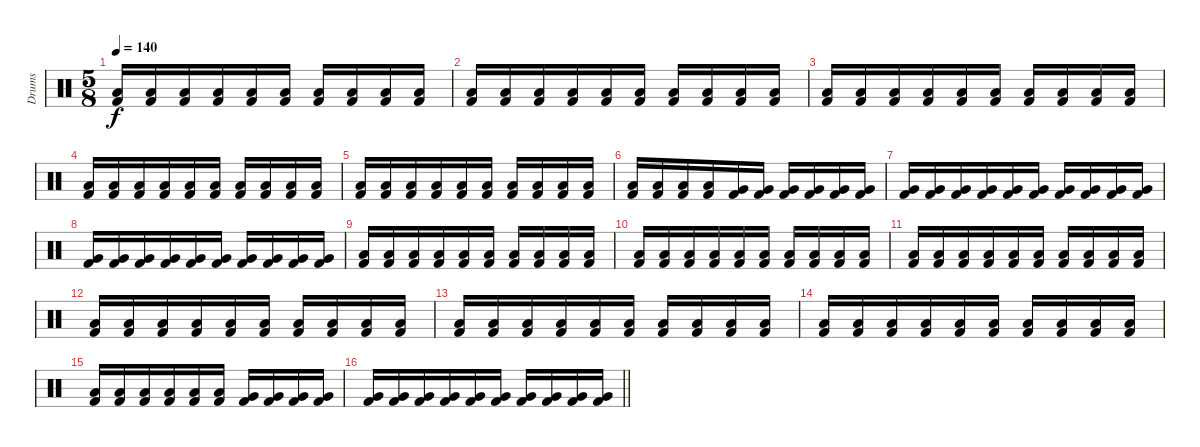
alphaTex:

\track ("Drums" "Drums") {instrument percussion}
\staff {score}
\articulation defaults
\ts (5 8)
\tempo 140
\clef neutral
\ks c
("Low Floor Tom (hit)" "Kick (hit) 2").16{dy f volume 4} ("Low Floor Tom (hit)" "Kick (hit) 2").16 ("Low Floor Tom (hit)" "Kick (hit) 2").16 ("Low Floor Tom (hit)" "Kick (hit) 2").16 ("Low Floor Tom (hit)" "Kick (hit) 2").16 ("Low Floor Tom (hit)" "Kick (hit) 2").16 ("Low Floor Tom (hit)" "Kick (hit) 2").16 ("Low Floor Tom (hit)" "Kick (hit) 2").16 ("Low Floor Tom (hit)" "Kick (hit) 2").16 ("Low Floor Tom (hit)" "Kick (hit) 2").16 |
("Low Floor Tom (hit)" "Kick (hit) 2").16 ("Low Floor Tom (hit)" "Kick (hit) 2").16 ("Low Floor Tom (hit)" "Kick (hit) 2").16 ("Low Floor Tom (hit)" "Kick (hit) 2").16 ("Low Floor Tom (hit)" "Kick (hit) 2").16 ("Low Floor Tom (hit)" "Kick (hit) 2").16 ("Low Floor Tom (hit)" "Kick (hit) 2").16 ("Low Floor Tom (hit)" "Kick (hit) 2").16 ("Low Floor Tom (hit)" "Kick (hit) 2").16 ("Low Floor Tom (hit)" "Kick (hit) 2").16 |
("Low Floor Tom (hit)" "Kick (hit) 2").16 ("Low Floor Tom (hit)" "Kick (hit) 2").16{volume 11} ("Low Floor Tom (hit)" "Kick (hit) 2").16 ("Low Floor Tom (hit)" "Kick (hit) 2").16 ("Low Floor Tom (hit)" "Kick (hit) 2").16 ("Low Floor Tom (hit)" "Kick (hit) 2").16 ("Low Floor Tom (hit)" "Kick (hit) 2").16 ("Low Floor Tom (hit)" "Kick (hit) 2").16 ("Low Floor Tom (hit)" "Kick (hit) 2").16 ("Low Floor Tom (hit)" "Kick (hit) 2").16 |
("Low Floor Tom (hit)" "Kick (hit) 2").16{balance 8} ("Low Floor Tom (hit)" "Kick (hit) 2").16 ("Low Tom (hit)" "Kick (hit) 2").16 ("Low Tom (hit)" "Kick (hit) 2").16 ("Low Tom (hit)" "Kick (hit) 2").16 ("Low Tom (hit)" "Kick (hit) 2").16 ("Low Tom (hit)" "Kick (hit) 2").16 ("Low Tom (hit)" "Kick (hit) 2").16 ("Low Tom (hit)" "Kick (hit) 2").16 ("Low Tom (hit)" "Kick (hit) 2").16 |
("Low Tom (hit)" "Kick (hit) 2").16 ("Low Tom (hit)" "Kick (hit) 2").16 ("Low Tom (hit)" "Kick (hit) 2").16 ("Low Tom (hit)" "Kick (hit) 2").16 ("Low Tom (hit)" "Kick (hit) 2").16 ("Low Tom (hit)" "Kick (hit) 2").16 ("Low Tom (hit)" "Kick (hit) 2").16 ("Low Tom (hit)" "Kick (hit) 2").16 ("Low Tom (hit)" "Kick (hit) 2").16 ("Low Tom (hit)" "Kick (hit) 2").16 |
("Low Tom (hit)" "Kick (hit) 2").16{volume 5 balance 0} ("Low Tom (hit)" "Kick (hit) 2").16 ("Low Tom (hit)" "Kick (hit) 2").16 ("Low Tom (hit)" "Kick (hit) 2").16 ("Very Low Tom (hit)" "Kick (hit) 2").16 ("Very Low Tom (hit)" "Kick (hit) 2").16 ("Very Low Tom (hit)" "Kick (hit) 2").16 ("Very Low Tom (hit)" "Kick (hit) 2").16 ("Very Low Tom (hit)" "Kick (hit) 2").16 ("Very Low Tom (hit)" "Kick (hit) 2").16 |
("Very Low Tom (hit)" "Kick (hit) 2").16{volume 12} ("Very Low Tom (hit)" "Kick (hit) 2").16 ("Very Low Tom (hit)" "Kick (hit) 2").16 ("Very Low Tom (hit)" "Kick (hit) 2").16 ("Very Low Tom (hit)" "Kick (hit) 2").16 ("Very Low Tom (hit)" "Kick (hit) 2").16 ("Very Low Tom (hit)" "Kick (hit) 2").16 ("Very Low Tom (hit)" "Kick (hit) 2").16 ("Very Low Tom (hit)" "Kick (hit) 2").16 ("Very Low Tom (hit)" "Kick (hit) 2").16 |
("Very Low Tom (hit)" "Kick (hit) 2").16 ("Very Low Tom (hit)" "Kick (hit) 2").16 ("Very Low Tom (hit)" "Kick (hit) 2").16 ("Very Low Tom (hit)" "Kick (hit) 2").16 ("Very Low Tom (hit)" "Kick (hit) 2").16 ("Very Low Tom (hit)" "Kick (hit) 2").16 ("Very Low Tom (hit)" "Kick (hit) 2").16 ("Very Low Tom (hit)" "Kick (hit) 2").16 ("Very Low Tom (hit)" "Kick (hit) 2").16 ("Very Low Tom (hit)" "Kick (hit) 2").16 |
("Low Floor Tom (hit)" "Kick (hit) 2").16{volume 4 balance 16} ("Low Floor Tom (hit)" "Kick (hit) 2").16{volume 6} ("Low Floor Tom (hit)" "Kick (hit) 2").16 ("Low Floor Tom (hit)" "Kick (hit) 2").16 ("Low Floor Tom (hit)" "Kick (hit) 2").16 ("Low Floor Tom (hit)" "Kick (hit) 2").16 ("Low Floor Tom (hit)" "Kick (hit) 2").16 ("Low Floor Tom (hit)" "Kick (hit) 2").16 ("Low Floor Tom (hit)" "Kick (hit) 2").16 ("Low Floor Tom (hit)" "Kick (hit) 2").16 |
("Low Floor Tom (hit)" "Kick (hit) 2").16{volume 8} ("Low Floor Tom (hit)" "Kick (hit) 2").16 ("Low Floor Tom (hit)" "Kick (hit) 2").16 ("Low Floor Tom (hit)" "Kick (hit) 2").16 ("Low Floor Tom (hit)" "Kick (hit) 2").16 ("Low Floor Tom (hit)" "Kick (hit) 2").16 ("Low Floor Tom (hit)" "Kick (hit) 2").16 ("Low Floor Tom (hit)" "Kick (hit) 2").16 ("Low Floor Tom (hit)" "Kick (hit) 2").16 ("Low Floor Tom (hit)" "Kick (hit) 2").16 |
("Low Floor Tom (hit)" "Kick (hit) 2").16{volume 9} ("Low Floor Tom (hit)" "Kick (hit) 2").16 ("Low Floor Tom (hit)" "Kick (hit) 2").16 ("Low Floor Tom (hit)" "Kick (hit) 2").16 ("Low Floor Tom (hit)" "Kick (hit) 2").16 ("Low Floor Tom (hit)" "Kick (hit) 2").16 ("Low Floor Tom (hit)" "Kick (hit) 2").16 ("Low Floor Tom (hit)" "Kick (hit) 2").16 ("Low Floor Tom (hit)" "Kick (hit) 2").16 ("Low Floor Tom (hit)" "Kick (hit) 2").16 |
("Low Floor Tom (hit)" "Kick (hit) 2").16 ("Low Floor Tom (hit)" "Kick (hit) 2").16 ("Low Floor Tom (hit)" "Kick (hit) 2").16 ("Low Floor Tom (hit)" "Kick (hit) 2").16 ("Low Floor Tom (hit)" "Kick (hit) 2").16 ("Low Floor Tom (hit)" "Kick (hit) 2").16 ("Low Floor Tom (hit)" "Kick (hit) 2").16 ("Low Floor Tom (hit)" "Kick (hit) 2").16 ("Low Floor Tom (hit)" "Kick (hit) 2").16 ("Low Floor Tom (hit)" "Kick (hit) 2").16 |
("Low Floor Tom (hit)" "Kick (hit) 2").16 ("Low Floor Tom (hit)" "Kick (hit) 2").16{volume 11} ("Low Floor Tom (hit)" "Kick (hit) 2").16 ("Low Floor Tom (hit)" "Kick (hit) 2").16 ("Low Floor Tom (hit)" "Kick (hit) 2").16 ("Low Floor Tom (hit)" "Kick (hit) 2").16 ("Low Floor Tom (hit)" "Kick (hit) 2").16 ("Low Floor Tom (hit)" "Kick (hit) 2").16 ("Low Floor Tom (hit)" "Kick (hit) 2").16 ("Low Floor Tom (hit)" "Kick (hit) 2").16 |
("Low Floor Tom (hit)" "Kick (hit) 2").16{balance 8} ("Low Floor Tom (hit)" "Kick (hit) 2").16 ("Low Tom (hit)" "Kick (hit) 2").16 ("Low Tom (hit)" "Kick (hit) 2").16 ("Low Tom (hit)" "Kick (hit) 2").16 ("Low Tom (hit)" "Kick (hit) 2").16 ("Low Tom (hit)" "Kick (hit) 2").16 ("Low Tom (hit)" "Kick (hit) 2").16 ("Low Tom (hit)" "Kick (hit) 2").16 ("Low Tom (hit)" "Kick (hit) 2").16 |
("Low Tom (hit)" "Kick (hit) 2").16{volume 16} ("Low Tom (hit)" "Kick (hit) 2").16 ("Low Tom (hit)" "Kick (hit) 2").16 ("Low Tom (hit)" "Kick (hit) 2").16 ("Low Tom (hit)" "Kick (hit) 2").16 ("Low Tom (hit)" "Kick (hit) 2").16 ("Very Low Tom (hit)" "Kick (hit) 2").16 ("Very Low Tom (hit)" "Kick (hit) 2").16 ("Very Low Tom (hit)" "Kick (hit) 2").16 ("Very Low Tom (hit)" "Kick (hit) 2").16 |
\barLineRight lightlight
("Very Low Tom (hit)" "Kick (hit) 2").16{balance 0} ("Very Low Tom (hit)" "Kick (hit) 2").16 ("Very Low Tom (hit)" "Kick (hit) 2").16 ("Very Low Tom (hit)" "Kick (hit) 2").16 ("Very Low Tom (hit)" "Kick (hit) 2").16 ("Very Low Tom (hit)" "Kick (hit) 2").16 ("Very Low Tom (hit)" "Kick (hit) 2").16 ("Very Low Tom (hit)" "Kick (hit) 2").16 ("Very Low Tom (hit)" "Kick (hit) 2").16 ("Very Low Tom (hit)" "Kick (hit) 2").16
